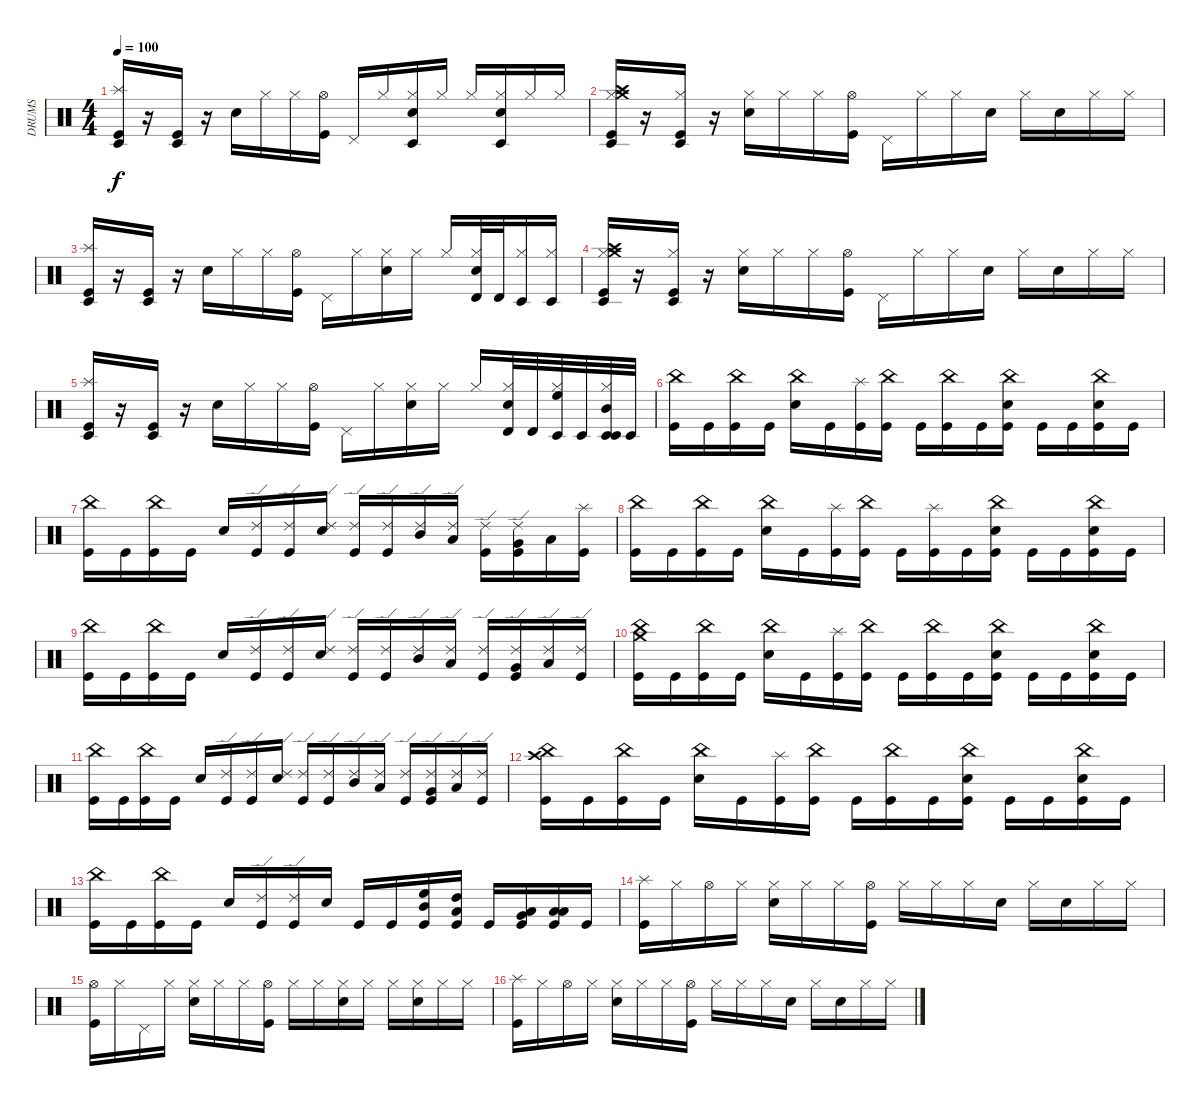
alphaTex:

\track ("DRUMS" "DRUMS") {instrument percussion}
\staff {score}
\articulation defaults
\ts (4 4)
\tempo 100
\clef neutral
\ks c
("Timbale low (hit)" "Splash (hit)" "Kick (hit)").16{dy f} r.16 ("Timbale low (hit)" "Kick (hit)").16 r.16 "Snare (hit) 2".16 "Hi-Hat (closed)".16 "Hi-Hat (closed)".16 ("Hi-Hat (open)" "Kick (hit)").16 "Pedal Hi-Hat (hit)".16 "Hi-Hat (closed)".16 ("Timbale low (hit)" "Snare (hit) 2" "Hi-Hat (closed)").16 "Hi-Hat (closed)".16 "Hi-Hat (closed)".16 ("Snare (hit) 2" "Hi-Hat (closed)" "Timbale low (hit)").16 "Hi-Hat (closed)".16 "Hi-Hat (closed)".16 |
("Timbale low (hit)" "Hi-Hat (closed)" "Crash high (hit)" "Crash medium (hit)" "Kick (hit)").16 r.16 ("Timbale low (hit)" "Hi-Hat (closed)" "Kick (hit)").16 r.16 ("Hi-Hat (closed)" "Snare (hit) 2").16 "Hi-Hat (closed)".16 "Hi-Hat (closed)".16 ("Hi-Hat (open)" "Kick (hit)").16 "Pedal Hi-Hat (hit)".16 "Hi-Hat (closed)".16 "Hi-Hat (closed)".16 "Snare (hit) 2".16 "Hi-Hat (closed)".16 "Snare (hit) 2".16 "Hi-Hat (closed)".16 "Hi-Hat (closed)".16 |
("Timbale low (hit)" "Splash (hit)" "Kick (hit)").16 r.16 ("Timbale low (hit)" "Kick (hit)").16 r.16 "Snare (hit) 2".16 "Hi-Hat (closed)".16 "Hi-Hat (closed)".16 ("Hi-Hat (open)" "Kick (hit)").16 "Pedal Hi-Hat (hit)".16 "Hi-Hat (closed)".16 ("Snare (hit) 2" "Hi-Hat (closed)").16 "Hi-Hat (closed)".16 "Hi-Hat (closed)".16 ("Snare (hit) 2" "Hi-Hat (closed)" "Timbale high (hit)").32 "Timbale high (hit)".32 ("Timbale low (hit)" "Hi-Hat (closed)").16 ("Timbale low (hit)" "Hi-Hat (closed)").16 |
("Timbale low (hit)" "Hi-Hat (closed)" "Crash high (hit)" "Crash medium (hit)" "Kick (hit)").16 r.16 ("Timbale low (hit)" "Hi-Hat (closed)" "Kick (hit)").16 r.16 ("Hi-Hat (closed)" "Snare (hit) 2").16 "Hi-Hat (closed)".16 "Hi-Hat (closed)".16 ("Hi-Hat (open)" "Kick (hit)").16 "Pedal Hi-Hat (hit)".16 "Hi-Hat (closed)".16 "Hi-Hat (closed)".16 "Snare (hit) 2".16 "Hi-Hat (closed)".16 "Snare (hit) 2".16 "Hi-Hat (closed)".16 "Hi-Hat (closed)".16 |
("Timbale low (hit)" "Splash (hit)" "Kick (hit)").16 r.16 ("Timbale low (hit)" "Kick (hit)").16 r.16 "Snare (hit) 2".16 "Hi-Hat (closed)".16 "Hi-Hat (closed)".16 ("Hi-Hat (open)" "Kick (hit)").16 "Pedal Hi-Hat (hit)".16 "Hi-Hat (closed)".16 ("Snare (hit) 2" "Hi-Hat (closed)").16 "Hi-Hat (closed)".16 "Hi-Hat (closed)".16 ("Snare (hit) 2" "Hi-Hat (closed)" "Timbale high (hit)").32 "Timbale high (hit)".32 ("High Floor Tom (hit)" "Timbale low (hit)" "Hi-Hat (closed)").32 "Timbale low (hit)".32 ("Mid Tom (hit)" "Timbale low (hit)" "Timbale low (hit)" "Hi-Hat (closed)").32 "Timbale low (hit)".32 |
("Kick (hit)" "China (hit)").16 "Kick (hit)".16 ("Kick (hit)" "China (hit)").16 "Kick (hit)".16 ("Snare (hit) 2" "China (hit)").16 "Kick (hit)".16 ("Splash (hit)" "Kick (hit)").16 ("Kick (hit)" "China (hit)").16 "Kick (hit)".16 ("Kick (hit)" "China (hit)").16 "Kick (hit)".16 ("Snare (hit) 2" "Kick (hit)" "China (hit)").16 "Kick (hit)".16 "Kick (hit)".16 ("Snare (hit) 2" "Kick (hit)" "China (hit)").16 "Kick (hit)".16 |
("China (hit)" "Kick (hit)").16 "Kick (hit)".16 ("China (hit)" "Kick (hit)").16 "Kick (hit)".16 "Snare (hit) 2".16 ("Kick (hit)" "Ride (edge) 2").16 ("Kick (hit)" "Ride (edge) 2").16 ("Ride (edge) 2" "Snare (hit) 2").16 ("Kick (hit)" "Ride (edge) 2").16 ("Kick (hit)" "Ride (edge) 2").16 ("Ride (edge) 2" "Mid Tom (hit)").16 ("Ride (edge) 2" "Low Tom (hit)").16 ("Kick (hit)" "Ride (edge) 2").16 ("Kick (hit)" "Very Low Tom (hit)" "Ride (edge) 2").16 "Low Floor Tom (hit)".16 ("Splash (hit)" "Kick (hit)").16 |
("Kick (hit)" "China (hit)").16 "Kick (hit)".16 ("Kick (hit)" "China (hit)").16 "Kick (hit)".16 ("Snare (hit) 2" "China (hit)").16 "Kick (hit)".16 ("Splash (hit)" "Kick (hit)").16 ("Kick (hit)" "China (hit)").16 "Kick (hit)".16 ("Kick (hit)" "Splash (hit)").16 "Kick (hit)".16 ("Snare (hit) 2" "Kick (hit)" "China (hit)").16 "Kick (hit)".16 "Kick (hit)".16 ("Snare (hit) 2" "Kick (hit)" "China (hit)").16 "Kick (hit)".16 |
("China (hit)" "Kick (hit)").16 "Kick (hit)".16 ("China (hit)" "Kick (hit)").16 "Kick (hit)".16 "Snare (hit) 2".16 ("Kick (hit)" "Ride (edge) 2").16 ("Kick (hit)" "Ride (edge) 2").16 ("Ride (edge) 2" "Snare (hit) 2").16 ("Kick (hit)" "Ride (edge) 2").16 ("Kick (hit)" "Ride (edge) 2").16 ("Ride (edge) 2" "Mid Tom (hit)").16 ("Ride (edge) 2" "Low Tom (hit)").16 ("Kick (hit)" "Ride (edge) 2").16 ("Kick (hit)" "Very Low Tom (hit)" "Ride (edge) 2").16 ("Ride (edge) 2" "Low Floor Tom (hit)").16 ("Ride (edge) 2" "Kick (hit)").16 |
("Crash medium (hit)" "Kick (hit)" "China (hit)").16 "Kick (hit)".16 ("Kick (hit)" "China (hit)").16 "Kick (hit)".16 ("Snare (hit) 2" "China (hit)").16 "Kick (hit)".16 ("Splash (hit)" "Kick (hit)").16 ("Kick (hit)" "China (hit)").16 "Kick (hit)".16 ("Kick (hit)" "China (hit)").16 "Kick (hit)".16 ("Snare (hit) 2" "Kick (hit)" "China (hit)").16 "Kick (hit)".16 "Kick (hit)".16 ("Snare (hit) 2" "Kick (hit)" "China (hit)").16 "Kick (hit)".16 |
("China (hit)" "Kick (hit)").16 "Kick (hit)".16 ("China (hit)" "Kick (hit)").16 "Kick (hit)".16 "Snare (hit) 2".16 ("Kick (hit)" "Ride (edge) 2").16 ("Kick (hit)" "Ride (edge) 2").16 ("Ride (edge) 2" "Snare (hit) 2").16 ("Kick (hit)" "Ride (edge) 2").16 ("Kick (hit)" "Ride (edge) 2").16 ("Ride (edge) 2" "Mid Tom (hit)").16 ("Ride (edge) 2" "Low Tom (hit)").16 ("Kick (hit)" "Ride (edge) 2").16 ("Kick (hit)" "Very Low Tom (hit)" "Ride (edge) 2").16 ("Ride (edge) 2" "Low Floor Tom (hit)").16 ("Ride (edge) 2" "Kick (hit)").16 |
("Crash high (hit)" "Kick (hit)" "China (hit)").16 "Kick (hit)".16 ("Kick (hit)" "China (hit)").16 "Kick (hit)".16 ("Snare (hit) 2" "China (hit)").16 "Kick (hit)".16 ("Splash (hit)" "Kick (hit)").16 ("Kick (hit)" "China (hit)").16 "Kick (hit)".16 ("Kick (hit)" "China (hit)").16 "Kick (hit)".16 ("Snare (hit) 2" "Kick (hit)" "China (hit)").16 "Kick (hit)".16 "Kick (hit)".16 ("Snare (hit) 2" "Kick (hit)" "China (hit)").16 "Kick (hit)".16 |
("China (hit)" "Kick (hit)").16 "Kick (hit)".16 ("China (hit)" "Kick (hit)").16 "Kick (hit)".16 "Snare (hit) 2".16 ("Kick (hit)" "Ride (edge) 2").16 ("Kick (hit)" "Ride (edge) 2").16 "Snare (hit) 2".16 "Kick (hit)".16 "Kick (hit)".16 ("High Floor Tom (hit)" "Kick (hit)" "Mid Tom (hit)").16 ("High Tom (hit)" "Kick (hit)" "Low Tom (hit)").16 "Kick (hit)".16 ("Low Tom (hit)" "Kick (hit)" "Very Low Tom (hit)").16 ("Low Tom (hit)" "Kick (hit)" "Low Floor Tom (hit)").16 "Kick (hit)".16 |
("Splash (hit)" "Kick (hit)").16 "Hi-Hat (closed)".16 "Hi-Hat (open)".16 "Hi-Hat (closed)".16 ("Hi-Hat (closed)" "Snare (hit) 2").16 "Hi-Hat (closed)".16 "Hi-Hat (closed)".16 ("Hi-Hat (open)" "Kick (hit)").16 "Hi-Hat (closed)".16 "Hi-Hat (closed)".16 "Hi-Hat (closed)".16 "Snare (hit) 2".16 "Hi-Hat (closed)".16 "Snare (hit) 2".16 "Hi-Hat (closed)".16 "Hi-Hat (closed)".16 |
("Hi-Hat (open)" "Kick (hit)").16 "Hi-Hat (closed)".16 "Pedal Hi-Hat (hit)".16 "Hi-Hat (closed)".16 ("Snare (hit) 2" "Hi-Hat (closed)").16 "Hi-Hat (closed)".16 "Hi-Hat (closed)".16 ("Kick (hit)" "Hi-Hat (open)").16 "Hi-Hat (closed)".16 "Hi-Hat (closed)".16 ("Snare (hit) 2" "Hi-Hat (closed)").16 "Hi-Hat (closed)".16 "Hi-Hat (closed)".16 ("Snare (hit) 2" "Hi-Hat (closed)").16 "Hi-Hat (closed)".16 "Hi-Hat (closed)".16 |
("Splash (hit)" "Kick (hit)").16 "Hi-Hat (closed)".16 "Hi-Hat (open)".16 "Hi-Hat (closed)".16 ("Hi-Hat (closed)" "Snare (hit) 2").16 "Hi-Hat (closed)".16 "Hi-Hat (closed)".16 ("Hi-Hat (open)" "Kick (hit)").16 "Hi-Hat (closed)".16 "Hi-Hat (closed)".16 "Hi-Hat (closed)".16 "Snare (hit) 2".16 "Hi-Hat (closed)".16 "Snare (hit) 2".16 "Hi-Hat (closed)".16 "Hi-Hat (closed)".16
